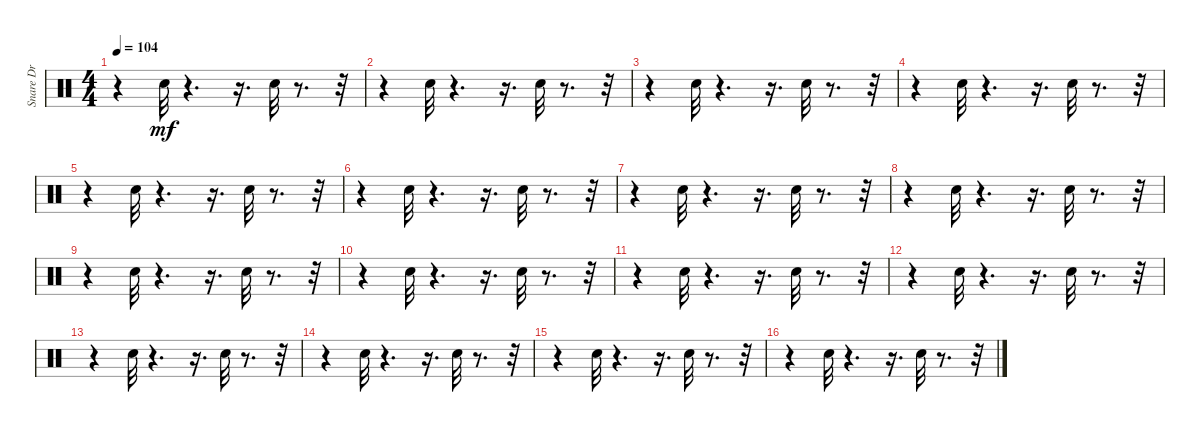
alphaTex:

\track ("  Snare Drum 1" "  Snare Dr") {instrument percussion}
\staff {score}
\articulation defaults
\ts (4 4)
\tempo 104
\clef neutral
\ks c
r.4{dy mf} "Snare (hit) 2".32 r.4{d} r.16{d} "Snare (hit) 2".32 r.8{d} r.32 |
r.4 "Snare (hit) 2".32 r.4{d} r.16{d} "Snare (hit) 2".32 r.8{d} r.32 |
r.4 "Snare (hit) 2".32 r.4{d} r.16{d} "Snare (hit) 2".32 r.8{d} r.32 |
r.4 "Snare (hit) 2".32 r.4{d} r.16{d} "Snare (hit) 2".32 r.8{d} r.32 |
r.4 "Snare (hit) 2".32 r.4{d} r.16{d} "Snare (hit) 2".32 r.8{d} r.32 |
r.4 "Snare (hit) 2".32 r.4{d} r.16{d} "Snare (hit) 2".32 r.8{d} r.32 |
r.4 "Snare (hit) 2".32 r.4{d} r.16{d} "Snare (hit) 2".32 r.8{d} r.32 |
r.4 "Snare (hit) 2".32 r.4{d} r.16{d} "Snare (hit) 2".32 r.8{d} r.32 |
r.4 "Snare (hit) 2".32 r.4{d} r.16{d} "Snare (hit) 2".32 r.8{d} r.32 |
r.4 "Snare (hit) 2".32 r.4{d} r.16{d} "Snare (hit) 2".32 r.8{d} r.32 |
r.4 "Snare (hit) 2".32 r.4{d} r.16{d} "Snare (hit) 2".32 r.8{d} r.32 |
r.4 "Snare (hit) 2".32 r.4{d} r.16{d} "Snare (hit) 2".32 r.8{d} r.32 |
r.4 "Snare (hit) 2".32 r.4{d} r.16{d} "Snare (hit) 2".32 r.8{d} r.32 |
r.4 "Snare (hit) 2".32 r.4{d} r.16{d} "Snare (hit) 2".32 r.8{d} r.32 |
r.4 "Snare (hit) 2".32 r.4{d} r.16{d} "Snare (hit) 2".32 r.8{d} r.32 |
r.4 "Snare (hit) 2".32 r.4{d} r.16{d} "Snare (hit) 2".32 r.8{d} r.32
